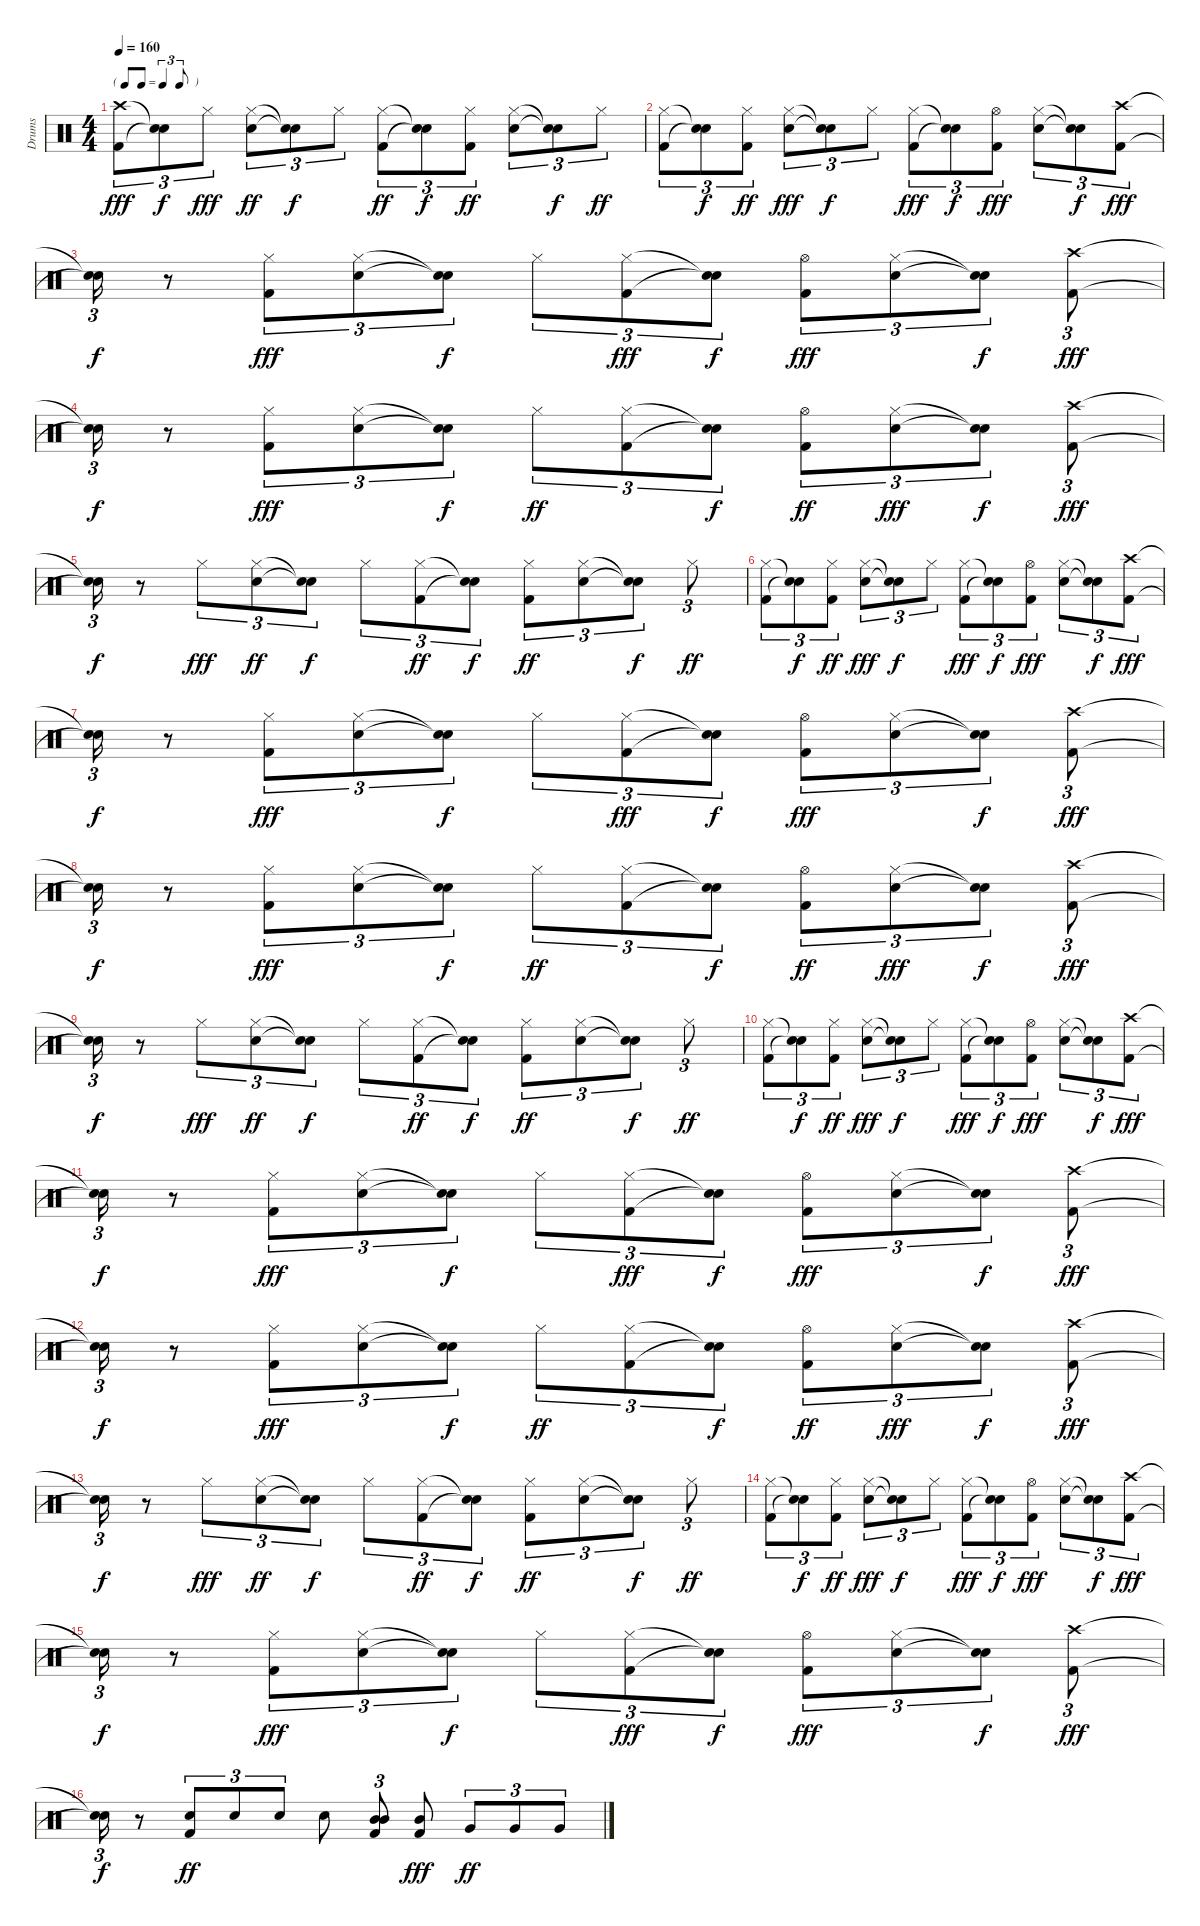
\track ("Drums" "Drums") {instrument percussion}
\staff {score}
\articulation defaults
\ts (4 4)
\tf triplet8th
\tempo 160
\clef neutral
\ks c
("Kick (hit) 2" "Crash high (hit)").8{tu (3 2) dy fff} ("Snare (hit)"{t} "Snare (hit)"{t}).8{tu (3 2) dy f} "Hi-Hat (closed)".8{tu (3 2) dy fff} ("Electric Snare (hit)" "Hi-Hat (closed)").8{tu (3 2) dy ff} ("Snare (hit)"{t} "Snare (hit)"{t}).8{tu (3 2) dy f} "Hi-Hat (closed)".8{tu (3 2)} ("Kick (hit) 2" "Hi-Hat (closed)").8{tu (3 2) dy ff} ("Snare (hit)"{t} "Snare (hit)"{t}).8{tu (3 2) dy f} ("Kick (hit) 2" "Hi-Hat (closed)").8{tu (3 2) dy ff} ("Electric Snare (hit)" "Hi-Hat (closed)").8{tu (3 2)} ("Snare (hit)"{t} "Snare (hit)"{t}).8{tu (3 2) dy f} "Hi-Hat (closed)".8{tu (3 2) dy ff} |
("Kick (hit) 2" "Hi-Hat (closed)").8{tu (3 2)} ("Snare (hit)"{t} "Snare (hit)"{t}).8{tu (3 2) dy f} ("Kick (hit) 2" "Hi-Hat (closed)").8{tu (3 2) dy ff} ("Hi-Hat (closed)" "Electric Snare (hit)").8{tu (3 2) dy fff} ("Snare (hit)"{t} "Snare (hit)"{t}).8{tu (3 2) dy f} "Hi-Hat (closed)".8{tu (3 2)} ("Kick (hit) 2" "Hi-Hat (closed)").8{tu (3 2) dy fff} ("Snare (hit)"{t} "Snare (hit)"{t}).8{tu (3 2) dy f} ("Kick (hit) 2" "Hi-Hat (open)").8{tu (3 2) dy fff} ("Electric Snare (hit)" "Hi-Hat (closed)").8{tu (3 2)} ("Snare (hit)"{t} "Snare (hit)"{t}).8{tu (3 2) dy f} ("Kick (hit) 2" "Crash high (hit)").8{tu (3 2) dy fff} |
("Snare (hit)"{t} "Snare (hit)"{t}).16{tu (3 2) dy f} r.8 ("Kick (hit) 2" "Hi-Hat (closed)").8{tu (3 2) dy fff} ("Hi-Hat (closed)" "Electric Snare (hit)").8{tu (3 2)} ("Snare (hit)"{t} "Snare (hit)"{t}).8{tu (3 2) dy f} "Hi-Hat (closed)".8{tu (3 2)} ("Kick (hit) 2" "Hi-Hat (closed)").8{tu (3 2) dy fff} ("Snare (hit)"{t} "Snare (hit)"{t}).8{tu (3 2) dy f} ("Kick (hit) 2" "Hi-Hat (open)").8{tu (3 2) dy fff} ("Hi-Hat (closed)" "Electric Snare (hit)").8{tu (3 2)} ("Snare (hit)"{t} "Snare (hit)"{t}).8{tu (3 2) dy f} ("Kick (hit) 2" "Crash high (hit)").8{tu (3 2) dy fff} |
("Snare (hit)"{t} "Snare (hit)"{t}).16{tu (3 2) dy f} r.8 ("Kick (hit) 2" "Hi-Hat (closed)").8{tu (3 2) dy fff} ("Hi-Hat (closed)" "Electric Snare (hit)").8{tu (3 2)} ("Snare (hit)"{t} "Snare (hit)"{t}).8{tu (3 2) dy f} "Hi-Hat (closed)".8{tu (3 2) dy ff} ("Kick (hit) 2" "Hi-Hat (closed)").8{tu (3 2)} ("Snare (hit)"{t} "Snare (hit)"{t}).8{tu (3 2) dy f} ("Kick (hit) 2" "Hi-Hat (open)").8{tu (3 2) dy ff} ("Hi-Hat (closed)" "Electric Snare (hit)").8{tu (3 2) dy fff} ("Snare (hit)"{t} "Snare (hit)"{t}).8{tu (3 2) dy f} ("Kick (hit) 2" "Crash high (hit)").8{tu (3 2) dy fff} |
("Snare (hit)"{t} "Snare (hit)"{t}).16{tu (3 2) dy f} r.8 "Hi-Hat (closed)".8{tu (3 2) dy fff} ("Electric Snare (hit)" "Hi-Hat (closed)").8{tu (3 2) dy ff} ("Snare (hit)"{t} "Snare (hit)"{t}).8{tu (3 2) dy f} "Hi-Hat (closed)".8{tu (3 2)} ("Kick (hit) 2" "Hi-Hat (closed)").8{tu (3 2) dy ff} ("Snare (hit)"{t} "Snare (hit)"{t}).8{tu (3 2) dy f} ("Kick (hit) 2" "Hi-Hat (closed)").8{tu (3 2) dy ff} ("Electric Snare (hit)" "Hi-Hat (closed)").8{tu (3 2)} ("Snare (hit)"{t} "Snare (hit)"{t}).8{tu (3 2) dy f} "Hi-Hat (closed)".8{tu (3 2) dy ff} |
("Kick (hit) 2" "Hi-Hat (closed)").8{tu (3 2)} ("Snare (hit)"{t} "Snare (hit)"{t}).8{tu (3 2) dy f} ("Kick (hit) 2" "Hi-Hat (closed)").8{tu (3 2) dy ff} ("Hi-Hat (closed)" "Electric Snare (hit)").8{tu (3 2) dy fff} ("Snare (hit)"{t} "Snare (hit)"{t}).8{tu (3 2) dy f} "Hi-Hat (closed)".8{tu (3 2)} ("Kick (hit) 2" "Hi-Hat (closed)").8{tu (3 2) dy fff} ("Snare (hit)"{t} "Snare (hit)"{t}).8{tu (3 2) dy f} ("Kick (hit) 2" "Hi-Hat (open)").8{tu (3 2) dy fff} ("Electric Snare (hit)" "Hi-Hat (closed)").8{tu (3 2)} ("Snare (hit)"{t} "Snare (hit)"{t}).8{tu (3 2) dy f} ("Kick (hit) 2" "Crash high (hit)").8{tu (3 2) dy fff} |
("Snare (hit)"{t} "Snare (hit)"{t}).16{tu (3 2) dy f} r.8 ("Kick (hit) 2" "Hi-Hat (closed)").8{tu (3 2) dy fff} ("Hi-Hat (closed)" "Electric Snare (hit)").8{tu (3 2)} ("Snare (hit)"{t} "Snare (hit)"{t}).8{tu (3 2) dy f} "Hi-Hat (closed)".8{tu (3 2)} ("Kick (hit) 2" "Hi-Hat (closed)").8{tu (3 2) dy fff} ("Snare (hit)"{t} "Snare (hit)"{t}).8{tu (3 2) dy f} ("Kick (hit) 2" "Hi-Hat (open)").8{tu (3 2) dy fff} ("Hi-Hat (closed)" "Electric Snare (hit)").8{tu (3 2)} ("Snare (hit)"{t} "Snare (hit)"{t}).8{tu (3 2) dy f} ("Kick (hit) 2" "Crash high (hit)").8{tu (3 2) dy fff} |
("Snare (hit)"{t} "Snare (hit)"{t}).16{tu (3 2) dy f} r.8 ("Kick (hit) 2" "Hi-Hat (closed)").8{tu (3 2) dy fff} ("Hi-Hat (closed)" "Electric Snare (hit)").8{tu (3 2)} ("Snare (hit)"{t} "Snare (hit)"{t}).8{tu (3 2) dy f} "Hi-Hat (closed)".8{tu (3 2) dy ff} ("Kick (hit) 2" "Hi-Hat (closed)").8{tu (3 2)} ("Snare (hit)"{t} "Snare (hit)"{t}).8{tu (3 2) dy f} ("Kick (hit) 2" "Hi-Hat (open)").8{tu (3 2) dy ff} ("Hi-Hat (closed)" "Electric Snare (hit)").8{tu (3 2) dy fff} ("Snare (hit)"{t} "Snare (hit)"{t}).8{tu (3 2) dy f} ("Kick (hit) 2" "Crash high (hit)").8{tu (3 2) dy fff} |
("Snare (hit)"{t} "Snare (hit)"{t}).16{tu (3 2) dy f} r.8 "Hi-Hat (closed)".8{tu (3 2) dy fff} ("Electric Snare (hit)" "Hi-Hat (closed)").8{tu (3 2) dy ff} ("Snare (hit)"{t} "Snare (hit)"{t}).8{tu (3 2) dy f} "Hi-Hat (closed)".8{tu (3 2)} ("Kick (hit) 2" "Hi-Hat (closed)").8{tu (3 2) dy ff} ("Snare (hit)"{t} "Snare (hit)"{t}).8{tu (3 2) dy f} ("Kick (hit) 2" "Hi-Hat (closed)").8{tu (3 2) dy ff} ("Electric Snare (hit)" "Hi-Hat (closed)").8{tu (3 2)} ("Snare (hit)"{t} "Snare (hit)"{t}).8{tu (3 2) dy f} "Hi-Hat (closed)".8{tu (3 2) dy ff} |
("Kick (hit) 2" "Hi-Hat (closed)").8{tu (3 2)} ("Snare (hit)"{t} "Snare (hit)"{t}).8{tu (3 2) dy f} ("Kick (hit) 2" "Hi-Hat (closed)").8{tu (3 2) dy ff} ("Hi-Hat (closed)" "Electric Snare (hit)").8{tu (3 2) dy fff} ("Snare (hit)"{t} "Snare (hit)"{t}).8{tu (3 2) dy f} "Hi-Hat (closed)".8{tu (3 2)} ("Kick (hit) 2" "Hi-Hat (closed)").8{tu (3 2) dy fff} ("Snare (hit)"{t} "Snare (hit)"{t}).8{tu (3 2) dy f} ("Kick (hit) 2" "Hi-Hat (open)").8{tu (3 2) dy fff} ("Electric Snare (hit)" "Hi-Hat (closed)").8{tu (3 2)} ("Snare (hit)"{t} "Snare (hit)"{t}).8{tu (3 2) dy f} ("Kick (hit) 2" "Crash high (hit)").8{tu (3 2) dy fff} |
("Snare (hit)"{t} "Snare (hit)"{t}).16{tu (3 2) dy f} r.8 ("Kick (hit) 2" "Hi-Hat (closed)").8{tu (3 2) dy fff} ("Hi-Hat (closed)" "Electric Snare (hit)").8{tu (3 2)} ("Snare (hit)"{t} "Snare (hit)"{t}).8{tu (3 2) dy f} "Hi-Hat (closed)".8{tu (3 2)} ("Kick (hit) 2" "Hi-Hat (closed)").8{tu (3 2) dy fff} ("Snare (hit)"{t} "Snare (hit)"{t}).8{tu (3 2) dy f} ("Kick (hit) 2" "Hi-Hat (open)").8{tu (3 2) dy fff} ("Hi-Hat (closed)" "Electric Snare (hit)").8{tu (3 2)} ("Snare (hit)"{t} "Snare (hit)"{t}).8{tu (3 2) dy f} ("Kick (hit) 2" "Crash high (hit)").8{tu (3 2) dy fff} |
("Snare (hit)"{t} "Snare (hit)"{t}).16{tu (3 2) dy f} r.8 ("Kick (hit) 2" "Hi-Hat (closed)").8{tu (3 2) dy fff} ("Hi-Hat (closed)" "Electric Snare (hit)").8{tu (3 2)} ("Snare (hit)"{t} "Snare (hit)"{t}).8{tu (3 2) dy f} "Hi-Hat (closed)".8{tu (3 2) dy ff} ("Kick (hit) 2" "Hi-Hat (closed)").8{tu (3 2)} ("Snare (hit)"{t} "Snare (hit)"{t}).8{tu (3 2) dy f} ("Kick (hit) 2" "Hi-Hat (open)").8{tu (3 2) dy ff} ("Hi-Hat (closed)" "Electric Snare (hit)").8{tu (3 2) dy fff} ("Snare (hit)"{t} "Snare (hit)"{t}).8{tu (3 2) dy f} ("Kick (hit) 2" "Crash high (hit)").8{tu (3 2) dy fff} |
("Snare (hit)"{t} "Snare (hit)"{t}).16{tu (3 2) dy f} r.8 "Hi-Hat (closed)".8{tu (3 2) dy fff} ("Electric Snare (hit)" "Hi-Hat (closed)").8{tu (3 2) dy ff} ("Snare (hit)"{t} "Snare (hit)"{t}).8{tu (3 2) dy f} "Hi-Hat (closed)".8{tu (3 2)} ("Kick (hit) 2" "Hi-Hat (closed)").8{tu (3 2) dy ff} ("Snare (hit)"{t} "Snare (hit)"{t}).8{tu (3 2) dy f} ("Kick (hit) 2" "Hi-Hat (closed)").8{tu (3 2) dy ff} ("Electric Snare (hit)" "Hi-Hat (closed)").8{tu (3 2)} ("Snare (hit)"{t} "Snare (hit)"{t}).8{tu (3 2) dy f} "Hi-Hat (closed)".8{tu (3 2) dy ff} |
("Kick (hit) 2" "Hi-Hat (closed)").8{tu (3 2)} ("Snare (hit)"{t} "Snare (hit)"{t}).8{tu (3 2) dy f} ("Kick (hit) 2" "Hi-Hat (closed)").8{tu (3 2) dy ff} ("Hi-Hat (closed)" "Electric Snare (hit)").8{tu (3 2) dy fff} ("Snare (hit)"{t} "Snare (hit)"{t}).8{tu (3 2) dy f} "Hi-Hat (closed)".8{tu (3 2)} ("Kick (hit) 2" "Hi-Hat (closed)").8{tu (3 2) dy fff} ("Snare (hit)"{t} "Snare (hit)"{t}).8{tu (3 2) dy f} ("Kick (hit) 2" "Hi-Hat (open)").8{tu (3 2) dy fff} ("Electric Snare (hit)" "Hi-Hat (closed)").8{tu (3 2)} ("Snare (hit)"{t} "Snare (hit)"{t}).8{tu (3 2) dy f} ("Kick (hit) 2" "Crash high (hit)").8{tu (3 2) dy fff} |
("Snare (hit)"{t} "Snare (hit)"{t}).16{tu (3 2) dy f} r.8 ("Kick (hit) 2" "Hi-Hat (closed)").8{tu (3 2) dy fff} ("Hi-Hat (closed)" "Electric Snare (hit)").8{tu (3 2)} ("Snare (hit)"{t} "Snare (hit)"{t}).8{tu (3 2) dy f} "Hi-Hat (closed)".8{tu (3 2)} ("Kick (hit) 2" "Hi-Hat (closed)").8{tu (3 2) dy fff} ("Snare (hit)"{t} "Snare (hit)"{t}).8{tu (3 2) dy f} ("Kick (hit) 2" "Hi-Hat (open)").8{tu (3 2) dy fff} ("Hi-Hat (closed)" "Electric Snare (hit)").8{tu (3 2)} ("Snare (hit)"{t} "Snare (hit)"{t}).8{tu (3 2) dy f} ("Kick (hit) 2" "Crash high (hit)").8{tu (3 2) dy fff} |
("Snare (hit)"{t} "Snare (hit)"{t}).16{tu (3 2) dy f} r.8 ("Kick (hit) 2" "Electric Snare (hit)").8{tu (3 2) dy ff} "Electric Snare (hit)".8{tu (3 2)} "Electric Snare (hit)".8{tu (3 2)} "Electric Snare (hit)".8 ("Mid Tom (hit)" "Kick (hit) 2" "Mid Tom (hit)").8{tu (3 2)} ("Mid Tom (hit)" "Kick (hit) 2").8{dy fff} "Very Low Tom (hit)".8{tu (3 2) dy ff} "Very Low Tom (hit)".8{tu (3 2)} "Very Low Tom (hit)".8{tu (3 2)}
